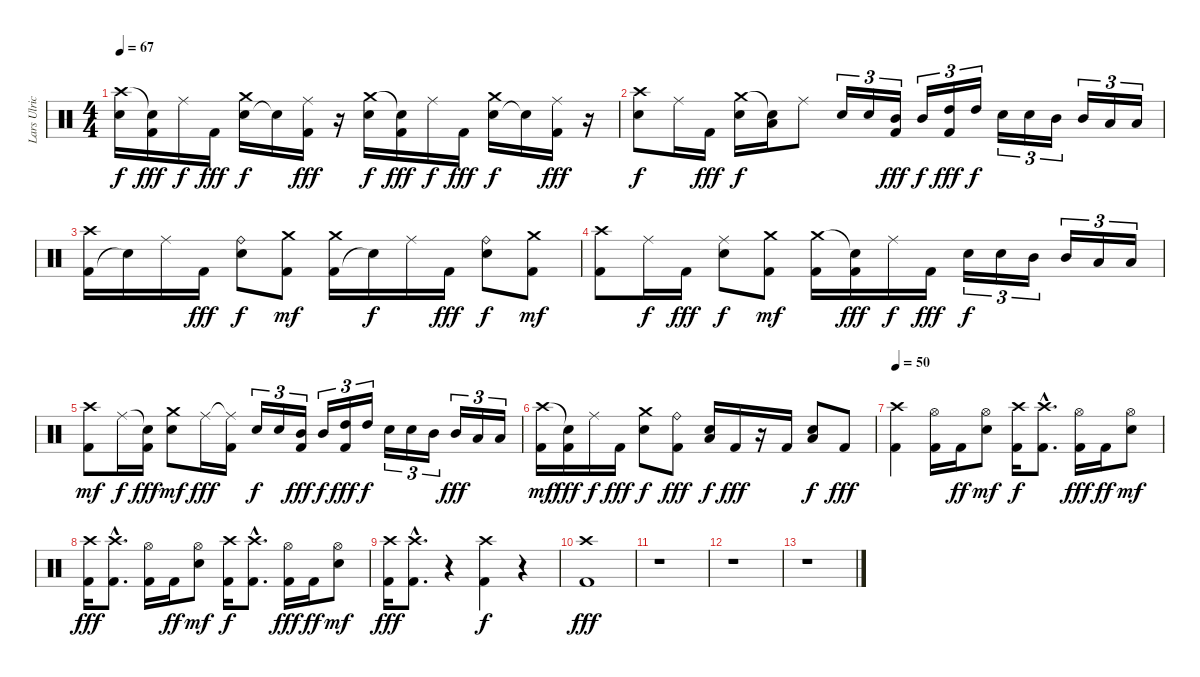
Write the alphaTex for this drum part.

\track ("Lars Ulrich (Drums)" "Lars Ulric") {instrument percussion}
\staff {score}
\articulation defaults
\ts (4 4)
\tempo 67
\clef neutral
\ks c
("Snare (hit) 2" "Crash high (hit)").16{dy f} ("Kick (hit) 2" "Snare (hit)"{t}).16{dy fff} "Ride (middle)".16{dy f} "Kick (hit) 2".16{dy fff} ("Snare (hit) 2" "Crash medium (hit)").16{dy f} "Snare (hit)"{t}.16 ("Ride (middle)" "Kick (hit) 2").16{dy fff} r.16 ("Snare (hit) 2" "Crash medium (hit)").16{dy f} ("Kick (hit) 2" "Snare (hit)"{t}).16{dy fff} "Ride (middle)".16{dy f} "Kick (hit) 2".16{dy fff} ("Snare (hit) 2" "Crash medium (hit)").16{dy f} "Snare (hit)"{t}.16 ("Ride (middle)" "Kick (hit) 2").16{dy fff} r.16 |
("Snare (hit) 2" "Crash high (hit)").8{dy f} "Ride (middle)".16 "Kick (hit) 2".16{dy fff} ("Snare (hit) 2" "Crash medium (hit)").16{dy f} ("Low Tom (hit)" "Snare (hit)"{t}).16 "Ride (middle)".8 "Snare (hit) 2".16{tu (3 2)} "Snare (hit) 2".16{tu (3 2)} ("Mid Tom (hit)" "Kick (hit) 2").16{tu (3 2) dy fff} "Mid Tom (hit)".16{tu (3 2) dy f} ("High Tom (hit)" "Kick (hit) 2").16{tu (3 2) dy fff} "High Tom (hit)".16{tu (3 2) dy f} "Snare (hit) 2".16{tu (3 2)} "Snare (hit) 2".16{tu (3 2)} "Mid Tom (hit)".16{tu (3 2)} "Mid Tom (hit)".16{tu (3 2)} "Low Tom (hit)".16{tu (3 2)} "Low Tom (hit)".16{tu (3 2)} |
("Kick (hit) 2" "Crash high (hit)").16 "Snare (hit)"{t}.16 "Ride (middle)".16 "Kick (hit) 2".16{dy fff} ("Ride (bell)" "Snare (hit) 2").8{dy f} ("Kick (hit) 2" "Crash medium (hit)").8{dy mf} ("Kick (hit) 2" "Crash medium (hit)").16 "Snare (hit)"{t}.16{dy f} "Ride (middle)".16 "Kick (hit) 2".16{dy fff} ("Ride (bell)" "Snare (hit) 2").8{dy f} ("Kick (hit) 2" "Crash medium (hit)").8{dy mf} |
("Kick (hit) 2" "Crash high (hit)").8 "Ride (middle)".16{dy f} "Kick (hit) 2".16{dy fff} ("Ride (middle)" "Snare (hit) 2").8{dy f} ("Kick (hit) 2" "Crash medium (hit)").8{dy mf} ("Kick (hit) 2" "Crash medium (hit)").16 ("Kick (hit) 2" "Snare (hit)"{t}).16{dy fff} "Ride (middle)".16{dy f} "Kick (hit) 2".16{dy fff} "Snare (hit) 2".16{tu (3 2) dy f} "Snare (hit) 2".16{tu (3 2)} "Mid Tom (hit)".16{tu (3 2)} "Mid Tom (hit)".16{tu (3 2)} "Low Tom (hit)".16{tu (3 2)} "Low Tom (hit)".16{tu (3 2)} |
("Kick (hit) 2" "Crash high (hit)").8{dy mf} "Ride (middle)".16{dy f} ("Snare (hit)"{t} "Kick (hit) 2").16{dy fff} ("Snare (hit) 2" "Crash medium (hit)").8{dy mf} "Ride (middle)".16{dy fff} ("Ride (middle)"{t} "Kick (hit) 2").16 "Snare (hit) 2".16{tu (3 2) dy f} "Snare (hit) 2".16{tu (3 2)} ("Mid Tom (hit)" "Kick (hit) 2").16{tu (3 2) dy fff} "Mid Tom (hit)".16{tu (3 2) dy f} ("High Tom (hit)" "Kick (hit) 2").16{tu (3 2) dy fff} "High Tom (hit)".16{tu (3 2) dy f} "Snare (hit) 2".16{tu (3 2)} "Snare (hit) 2".16{tu (3 2)} "Mid Tom (hit)".16{tu (3 2)} "Mid Tom (hit)".16{tu (3 2) dy fff} "Low Tom (hit)".16{tu (3 2)} "Low Tom (hit)".16{tu (3 2)} |
("Kick (hit) 2" "Crash high (hit)").16{dy mf} ("Kick (hit) 2" "Snare (hit)"{t}).16{dy fff} "Ride (middle)".16{dy f} "Kick (hit) 2".16{dy fff} ("Snare (hit) 2" "Crash medium (hit)").8{dy f} ("Ride (bell)" "Kick (hit) 2").8{dy fff} ("Snare (hit) 2" "Low Tom (hit)").16{dy f} "Kick (hit) 2".16{dy fff} r.16 "Kick (hit) 2".16 ("Snare (hit) 2" "Low Tom (hit)").8{dy f} "Kick (hit) 2".8{dy fff} |
\tempo 50
("Kick (hit) 2" "Crash high (hit)").4 ("Hi-Hat (open)" "Kick (hit) 2").16 "Kick (hit) 2".16{dy ff} ("Hi-Hat (open)" "Snare (hit) 2").8{dy mf} ("Kick (hit) 2" "Crash high (hit)").16{dy f} ("Kick (hit) 2"{hac} "Crash high (hit)"{hac}).8{d} ("Hi-Hat (open)" "Kick (hit) 2").16{dy fff} "Kick (hit) 2".16{dy ff} ("Hi-Hat (open)" "Snare (hit) 2").8{dy mf} |
("Kick (hit) 2" "Crash high (hit)").16{dy fff} ("Kick (hit) 2"{hac} "Crash high (hit)"{hac}).8{d} ("Hi-Hat (open)" "Kick (hit) 2").16 "Kick (hit) 2".16{dy ff} ("Hi-Hat (open)" "Snare (hit) 2").8{dy mf} ("Kick (hit) 2" "Crash high (hit)").16{dy f} ("Kick (hit) 2"{hac} "Crash high (hit)"{hac}).8{d} ("Hi-Hat (open)" "Kick (hit) 2").16{dy fff} "Kick (hit) 2".16{dy ff} ("Hi-Hat (open)" "Snare (hit) 2").8{dy mf} |
("Kick (hit) 2" "Crash high (hit)").16{dy fff} ("Kick (hit) 2"{hac} "Crash high (hit)"{hac}).8{d} r.4 ("Kick (hit) 2" "Crash high (hit)").4{dy f} r.4 |
("Kick (hit) 2" "Crash high (hit)").1{dy fff} |
r.1 |
r.1 |
r.1
